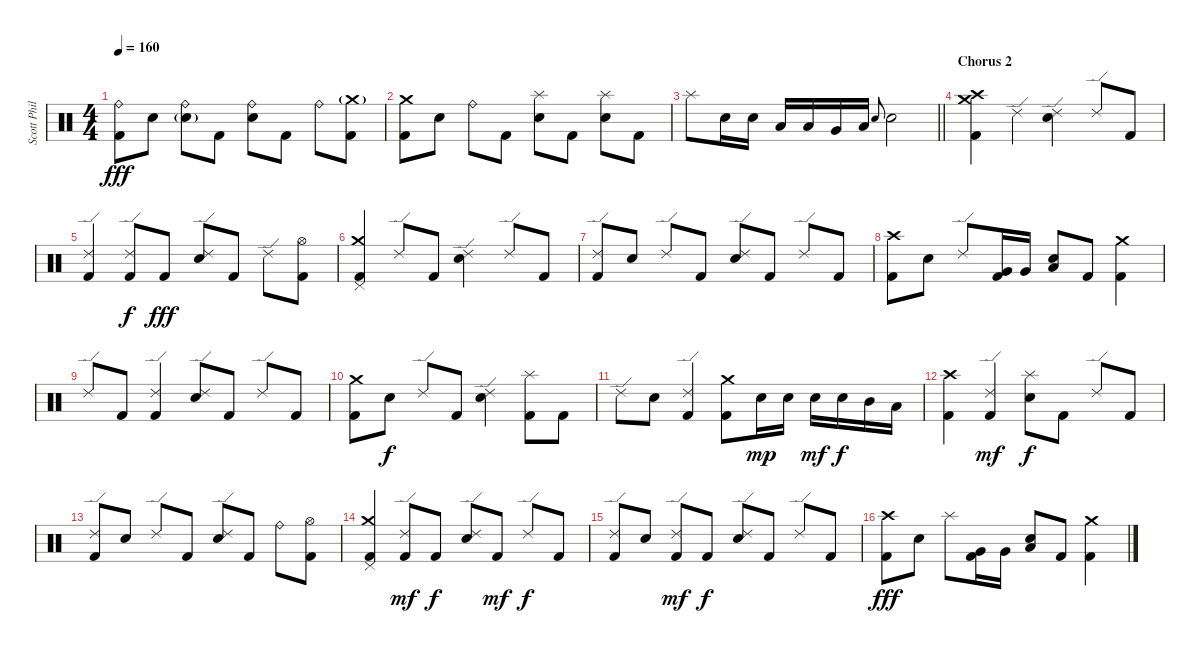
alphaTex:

\track ("Scott Phillips [Drums]" "Scott Phil") {instrument percussion}
\staff {score}
\articulation defaults
\ts (4 4)
\tempo 160
\clef neutral
\ks c
("Ride (bell)" "Kick (hit) 2").8{dy fff} "Electric Snare (hit)".8 ("Ride (bell)" "Electric Snare (hit)"{g}).8 "Kick (hit) 2".8 ("Ride (bell)" "Electric Snare (hit)").8 "Kick (hit) 2".8 "Ride (bell)".8 ("Crash medium (hit)"{g} "Kick (hit) 2").8 |
("Crash medium (hit)" "Kick (hit) 2").8 "Electric Snare (hit)".8 "Ride (bell)".8 "Kick (hit) 2".8 ("Splash (hit)" "Electric Snare (hit)").8 "Kick (hit) 2".8 ("Splash (hit)" "Electric Snare (hit)").8 "Kick (hit) 2".8 |
\barLineRight lightlight "Splash (hit)".8 "Electric Snare (hit)".16 "Electric Snare (hit)".16 "Low Tom (hit)".16 "Low Tom (hit)".16 "Very Low Tom (hit)".16 "Low Floor Tom (hit)".16 "Electric Snare (hit)".8{gr onbeat} "Electric Snare (hit)".2
|
\section ("" "Chorus 2")
("Crash high (hit)" "Crash medium (hit)" "Kick (hit) 2").4 "Ride (edge) 2".4 ("Ride (edge) 2" "Electric Snare (hit)").4 "Ride (edge) 2".8 "Kick (hit) 2".8 |
("Ride (edge) 2" "Kick (hit) 2").4 ("Ride (edge) 2" "Kick (hit) 2").8{dy f} "Kick (hit) 2".8{dy fff} ("Ride (edge) 2" "Electric Snare (hit)").8 "Kick (hit) 2".8 "Ride (edge) 2".8 ("Hi-Hat (open)" "Kick (hit) 2").8 |
("Crash medium (hit)" "Pedal Hi-Hat (hit)" "Kick (hit) 2").4 "Ride (edge) 2".8 "Kick (hit) 2".8 ("Ride (edge) 2" "Electric Snare (hit)").4 "Ride (edge) 2".8 "Kick (hit) 2".8 |
("Ride (edge) 2" "Kick (hit) 2").8 "Electric Snare (hit)".8 "Ride (edge) 2".8 "Kick (hit) 2".8 ("Ride (edge) 2" "Electric Snare (hit)").8 "Kick (hit) 2".8 "Ride (edge) 2".8 "Kick (hit) 2".8 |
("Crash high (hit)" "Kick (hit) 2").8 "Electric Snare (hit)".8 "Ride (edge) 2".8 ("Very Low Tom (hit)" "Kick (hit) 2").16 "Very Low Tom (hit)".16 ("Low Floor Tom (hit)" "Electric Snare (hit)").8 "Kick (hit) 2".8 ("Crash medium (hit)" "Kick (hit) 2").4 |
"Ride (edge) 2".8 "Kick (hit) 2".8 ("Ride (edge) 2" "Kick (hit) 2").4 ("Ride (edge) 2" "Electric Snare (hit)").8 "Kick (hit) 2".8 "Ride (edge) 2".8 "Kick (hit) 2".8 |
("Crash medium (hit)" "Kick (hit) 2").8 "Electric Snare (hit)".8{dy f} "Ride (edge) 2".8 "Kick (hit) 2".8 ("Ride (edge) 2" "Electric Snare (hit)").4 ("Splash (hit)" "Kick (hit) 2").8 "Kick (hit) 2".8 |
"Ride (edge) 2".8 "Electric Snare (hit)".8 ("Ride (edge) 2" "Kick (hit) 2").4 ("Crash medium (hit)" "Kick (hit) 2").8 "Electric Snare (hit)".16{dy mp} "Electric Snare (hit)".16 "Electric Snare (hit)".16{dy mf} "Electric Snare (hit)".16{dy f} "Mid Tom (hit)".16 "Low Tom (hit)".16 |
("Crash high (hit)" "Kick (hit) 2").4 ("Ride (edge) 2" "Kick (hit) 2").4{dy mf} ("Splash (hit)" "Electric Snare (hit)").8{dy f} "Kick (hit) 2".8 "Ride (edge) 2".8 "Kick (hit) 2".8 |
("Ride (edge) 2" "Kick (hit) 2").8 "Electric Snare (hit)".8 "Ride (edge) 2".8 "Kick (hit) 2".8 ("Ride (edge) 2" "Electric Snare (hit)").8 "Kick (hit) 2".8 "Ride (bell)".8 ("Hi-Hat (open)" "Kick (hit) 2").8 |
("Crash medium (hit)" "Pedal Hi-Hat (hit)" "Kick (hit) 2").4 ("Ride (edge) 2" "Kick (hit) 2").8{dy mf} "Kick (hit) 2".8{dy f} ("Ride (edge) 2" "Electric Snare (hit)").8 "Kick (hit) 2".8{dy mf} "Ride (edge) 2".8{dy f} "Kick (hit) 2".8 |
("Ride (edge) 2" "Kick (hit) 2").8 "Electric Snare (hit)".8 ("Ride (edge) 2" "Kick (hit) 2").8{dy mf} "Kick (hit) 2".8{dy f} ("Ride (edge) 2" "Electric Snare (hit)").8 "Kick (hit) 2".8 "Ride (edge) 2".8 "Kick (hit) 2".8 |
("Crash high (hit)" "Kick (hit) 2").8{dy fff} "Electric Snare (hit)".8 "Splash (hit)".8 ("Very Low Tom (hit)" "Kick (hit) 2").16 "Very Low Tom (hit)".16 ("Low Floor Tom (hit)" "Electric Snare (hit)").8 "Kick (hit) 2".8 ("Crash medium (hit)" "Kick (hit) 2").4
